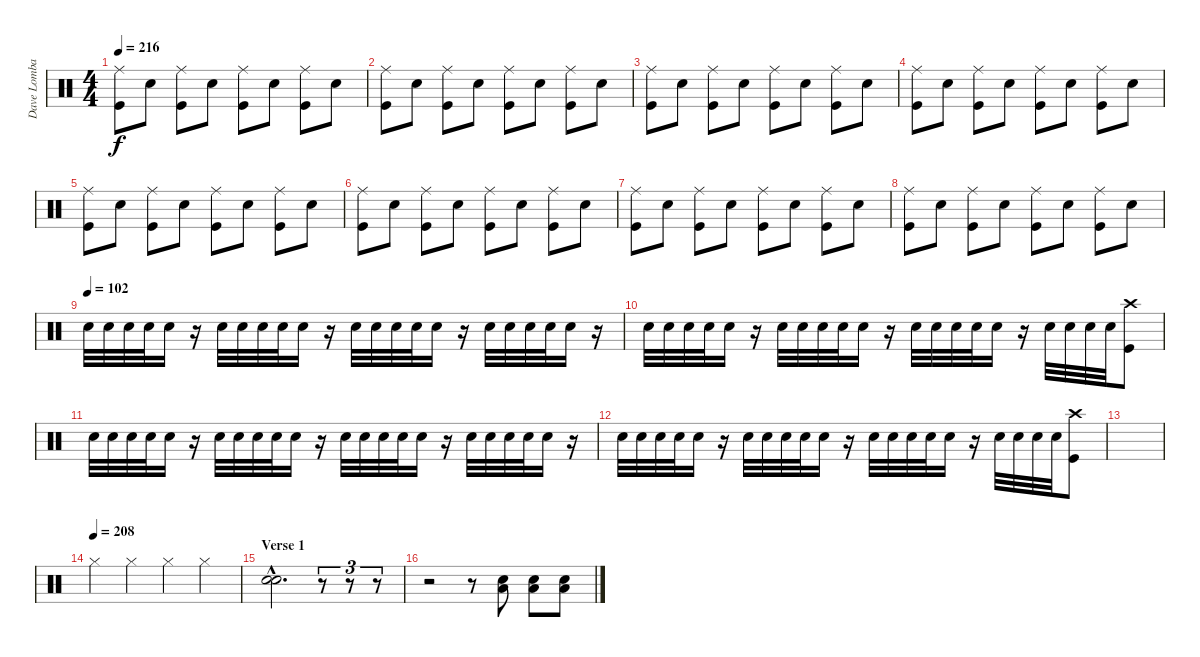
\track ("Dave Lombardo" "Dave Lomba") {instrument percussion}
\staff {score}
\articulation defaults
\ts (4 4)
\tempo 216
\clef neutral
\ks c
("Ride (middle)" "Kick (hit)").8{dy f} "Electric Snare (hit)".8 ("Ride (middle)" "Kick (hit)").8 "Electric Snare (hit)".8 ("Ride (middle)" "Kick (hit)").8 "Electric Snare (hit)".8 ("Ride (middle)" "Kick (hit)").8 "Electric Snare (hit)".8 |
("Ride (middle)" "Kick (hit)").8 "Electric Snare (hit)".8 ("Ride (middle)" "Kick (hit)").8 "Electric Snare (hit)".8 ("Ride (middle)" "Kick (hit)").8 "Electric Snare (hit)".8 ("Ride (middle)" "Kick (hit)").8 "Electric Snare (hit)".8 |
("Ride (middle)" "Kick (hit)").8 "Electric Snare (hit)".8 ("Ride (middle)" "Kick (hit)").8 "Electric Snare (hit)".8 ("Ride (middle)" "Kick (hit)").8 "Electric Snare (hit)".8 ("Ride (middle)" "Kick (hit)").8 "Electric Snare (hit)".8 |
("Ride (middle)" "Kick (hit)").8 "Electric Snare (hit)".8 ("Ride (middle)" "Kick (hit)").8 "Electric Snare (hit)".8 ("Ride (middle)" "Kick (hit)").8 "Electric Snare (hit)".8 ("Ride (middle)" "Kick (hit)").8 "Electric Snare (hit)".8 |
("Ride (middle)" "Kick (hit)").8 "Electric Snare (hit)".8 ("Ride (middle)" "Kick (hit)").8 "Electric Snare (hit)".8 ("Ride (middle)" "Kick (hit)").8 "Electric Snare (hit)".8 ("Ride (middle)" "Kick (hit)").8 "Electric Snare (hit)".8 |
("Ride (middle)" "Kick (hit)").8 "Electric Snare (hit)".8 ("Ride (middle)" "Kick (hit)").8 "Electric Snare (hit)".8 ("Ride (middle)" "Kick (hit)").8 "Electric Snare (hit)".8 ("Ride (middle)" "Kick (hit)").8 "Electric Snare (hit)".8 |
("Ride (middle)" "Kick (hit)").8 "Electric Snare (hit)".8 ("Ride (middle)" "Kick (hit)").8 "Electric Snare (hit)".8 ("Ride (middle)" "Kick (hit)").8 "Electric Snare (hit)".8 ("Ride (middle)" "Kick (hit)").8 "Electric Snare (hit)".8 |
("Ride (middle)" "Kick (hit)").8 "Electric Snare (hit)".8 ("Ride (middle)" "Kick (hit)").8 "Electric Snare (hit)".8 ("Ride (middle)" "Kick (hit)").8 "Electric Snare (hit)".8 ("Ride (middle)" "Kick (hit)").8 "Electric Snare (hit)".8 |
\tempo (102)
"Electric Snare (hit)".32 "Electric Snare (hit)".32 "Electric Snare (hit)".32 "Electric Snare (hit)".32 "Electric Snare (hit)".16 r.16 "Electric Snare (hit)".32 "Electric Snare (hit)".32 "Electric Snare (hit)".32 "Electric Snare (hit)".32 "Electric Snare (hit)".16 r.16 "Electric Snare (hit)".32 "Electric Snare (hit)".32 "Electric Snare (hit)".32 "Electric Snare (hit)".32 "Electric Snare (hit)".16 r.16 "Electric Snare (hit)".32 "Electric Snare (hit)".32 "Electric Snare (hit)".32 "Electric Snare (hit)".32 "Electric Snare (hit)".16 r.16 |
"Electric Snare (hit)".32 "Electric Snare (hit)".32 "Electric Snare (hit)".32 "Electric Snare (hit)".32 "Electric Snare (hit)".16 r.16 "Electric Snare (hit)".32 "Electric Snare (hit)".32 "Electric Snare (hit)".32 "Electric Snare (hit)".32 "Electric Snare (hit)".16 r.16 "Electric Snare (hit)".32 "Electric Snare (hit)".32 "Electric Snare (hit)".32 "Electric Snare (hit)".32 "Electric Snare (hit)".16 r.16 "Electric Snare (hit)".32 "Electric Snare (hit)".32 "Electric Snare (hit)".32 "Electric Snare (hit)".32 ("Crash high (hit)" "Kick (hit)").8 |
"Electric Snare (hit)".32 "Electric Snare (hit)".32 "Electric Snare (hit)".32 "Electric Snare (hit)".32 "Electric Snare (hit)".16 r.16 "Electric Snare (hit)".32 "Electric Snare (hit)".32 "Electric Snare (hit)".32 "Electric Snare (hit)".32 "Electric Snare (hit)".16 r.16 "Electric Snare (hit)".32 "Electric Snare (hit)".32 "Electric Snare (hit)".32 "Electric Snare (hit)".32 "Electric Snare (hit)".16 r.16 "Electric Snare (hit)".32 "Electric Snare (hit)".32 "Electric Snare (hit)".32 "Electric Snare (hit)".32 "Electric Snare (hit)".16 r.16 |
"Electric Snare (hit)".32 "Electric Snare (hit)".32 "Electric Snare (hit)".32 "Electric Snare (hit)".32 "Electric Snare (hit)".16 r.16 "Electric Snare (hit)".32 "Electric Snare (hit)".32 "Electric Snare (hit)".32 "Electric Snare (hit)".32 "Electric Snare (hit)".16 r.16 "Electric Snare (hit)".32 "Electric Snare (hit)".32 "Electric Snare (hit)".32 "Electric Snare (hit)".32 "Electric Snare (hit)".16 r.16 "Electric Snare (hit)".32 "Electric Snare (hit)".32 "Electric Snare (hit)".32 "Electric Snare (hit)".32 ("Crash high (hit)" "Kick (hit)").8 |
|
\tempo (208)
"Hi-Hat (closed)".4 "Hi-Hat (closed)".4 "Hi-Hat (closed)".4 "Hi-Hat (closed)".4 |
\section ("" "Verse 1")
("Electric Snare (hit)"{hac} "Electric Snare (hit)"{hac}).2{d} r.8{tu (3 2)} r.8{tu (3 2)} r.8{tu (3 2)} |
r.2 r.8 ("Low Tom (hit)" "Electric Snare (hit)").8 ("Low Tom (hit)" "Electric Snare (hit)").8 ("Low Tom (hit)" "Electric Snare (hit)").8
